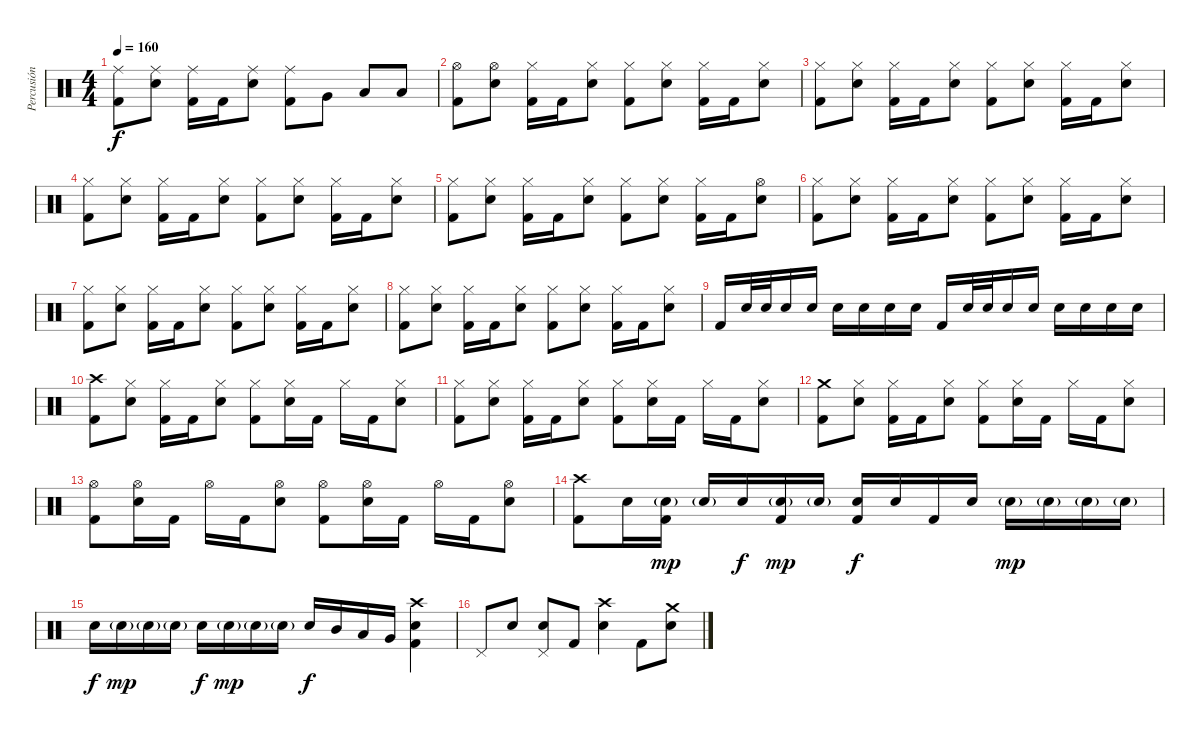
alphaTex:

\track ("Percusión" "Percusión") {instrument percussion}
\staff {score}
\articulation defaults
\ts (4 4)
\tempo 160
\clef neutral
\ks c
("Ride (middle)" "Kick (hit) 2").8{dy f} ("Ride (middle)" "Electric Snare (hit)").8 ("Ride (middle)" "Kick (hit) 2").16 "Kick (hit) 2".16 ("Ride (middle)" "Electric Snare (hit)").8 ("Ride (middle)" "Kick (hit) 2").8 "Very Low Tom (hit)".8 "Low Tom (hit)".8 "Low Tom (hit)".8 |
("Hi-Hat (open)" "Kick (hit) 2").8 ("Hi-Hat (open)" "Electric Snare (hit)").8 ("Hi-Hat (closed)" "Kick (hit) 2").16 "Kick (hit) 2".16 ("Hi-Hat (closed)" "Electric Snare (hit)").8 ("Hi-Hat (closed)" "Kick (hit) 2").8 ("Hi-Hat (closed)" "Electric Snare (hit)").8 ("Hi-Hat (closed)" "Kick (hit) 2").16 "Kick (hit) 2".16 ("Hi-Hat (closed)" "Electric Snare (hit)").8 |
("Hi-Hat (closed)" "Kick (hit) 2").8 ("Hi-Hat (closed)" "Electric Snare (hit)").8 ("Hi-Hat (closed)" "Kick (hit) 2").16 "Kick (hit) 2".16 ("Hi-Hat (closed)" "Electric Snare (hit)").8 ("Hi-Hat (closed)" "Kick (hit) 2").8 ("Hi-Hat (closed)" "Electric Snare (hit)").8 ("Hi-Hat (closed)" "Kick (hit) 2").16 "Kick (hit) 2".16 ("Hi-Hat (closed)" "Electric Snare (hit)").8 |
("Hi-Hat (closed)" "Kick (hit) 2").8 ("Hi-Hat (closed)" "Electric Snare (hit)").8 ("Hi-Hat (closed)" "Kick (hit) 2").16 "Kick (hit) 2".16 ("Hi-Hat (closed)" "Electric Snare (hit)").8 ("Hi-Hat (closed)" "Kick (hit) 2").8 ("Hi-Hat (closed)" "Electric Snare (hit)").8 ("Hi-Hat (closed)" "Kick (hit) 2").16 "Kick (hit) 2".16 ("Hi-Hat (closed)" "Electric Snare (hit)").8 |
("Hi-Hat (closed)" "Kick (hit) 2").8 ("Hi-Hat (closed)" "Electric Snare (hit)").8 ("Hi-Hat (closed)" "Kick (hit) 2").16 "Kick (hit) 2".16 ("Hi-Hat (closed)" "Electric Snare (hit)").8 ("Hi-Hat (closed)" "Kick (hit) 2").8 ("Hi-Hat (closed)" "Electric Snare (hit)").8 ("Hi-Hat (closed)" "Kick (hit) 2").16 "Kick (hit) 2".16 ("Hi-Hat (open)" "Electric Snare (hit)").8 |
("Hi-Hat (closed)" "Kick (hit) 2").8 ("Hi-Hat (closed)" "Electric Snare (hit)").8 ("Hi-Hat (closed)" "Kick (hit) 2").16 "Kick (hit) 2".16 ("Hi-Hat (closed)" "Electric Snare (hit)").8 ("Hi-Hat (closed)" "Kick (hit) 2").8 ("Hi-Hat (closed)" "Electric Snare (hit)").8 ("Hi-Hat (closed)" "Kick (hit) 2").16 "Kick (hit) 2".16 ("Hi-Hat (closed)" "Electric Snare (hit)").8 |
("Hi-Hat (closed)" "Kick (hit) 2").8 ("Hi-Hat (closed)" "Electric Snare (hit)").8 ("Hi-Hat (closed)" "Kick (hit) 2").16 "Kick (hit) 2".16 ("Hi-Hat (closed)" "Electric Snare (hit)").8 ("Hi-Hat (closed)" "Kick (hit) 2").8 ("Hi-Hat (closed)" "Electric Snare (hit)").8 ("Hi-Hat (closed)" "Kick (hit) 2").16 "Kick (hit) 2".16 ("Hi-Hat (closed)" "Electric Snare (hit)").8 |
("Hi-Hat (closed)" "Kick (hit) 2").8 ("Hi-Hat (closed)" "Electric Snare (hit)").8 ("Hi-Hat (closed)" "Kick (hit) 2").16 "Kick (hit) 2".16 ("Hi-Hat (closed)" "Electric Snare (hit)").8 ("Hi-Hat (closed)" "Kick (hit) 2").8 ("Hi-Hat (closed)" "Electric Snare (hit)").8 ("Hi-Hat (closed)" "Kick (hit) 2").16 "Kick (hit) 2".16 ("Hi-Hat (closed)" "Electric Snare (hit)").8 |
"Kick (hit) 2".16 "Electric Snare (hit)".32 "Electric Snare (hit)".32 "Electric Snare (hit)".16 "Electric Snare (hit)".16 "Electric Snare (hit)".16 "Electric Snare (hit)".16 "Electric Snare (hit)".16 "Electric Snare (hit)".16 "Kick (hit) 2".16 "Electric Snare (hit)".32 "Electric Snare (hit)".32 "Electric Snare (hit)".16 "Electric Snare (hit)".16 "Electric Snare (hit)".16 "Electric Snare (hit)".16 "Electric Snare (hit)".16 "Electric Snare (hit)".16 |
("Crash high (hit)" "Kick (hit) 2").8 ("Hi-Hat (closed)" "Electric Snare (hit)").8 ("Hi-Hat (closed)" "Kick (hit) 2").16 "Kick (hit) 2".16 ("Hi-Hat (closed)" "Electric Snare (hit)").8 ("Hi-Hat (closed)" "Kick (hit) 2").8 ("Hi-Hat (closed)" "Electric Snare (hit)").16 "Kick (hit) 2".16 "Hi-Hat (closed)".16 "Kick (hit) 2".16 ("Hi-Hat (closed)" "Electric Snare (hit)").8 |
("Hi-Hat (closed)" "Kick (hit) 2").8 ("Hi-Hat (closed)" "Electric Snare (hit)").8 ("Hi-Hat (closed)" "Kick (hit) 2").16 "Kick (hit) 2".16 ("Hi-Hat (closed)" "Electric Snare (hit)").8 ("Hi-Hat (closed)" "Kick (hit) 2").8 ("Hi-Hat (closed)" "Electric Snare (hit)").16 "Kick (hit) 2".16 "Hi-Hat (closed)".16 "Kick (hit) 2".16 ("Hi-Hat (closed)" "Electric Snare (hit)").8 |
("Crash medium (hit)" "Kick (hit) 2").8 ("Hi-Hat (closed)" "Electric Snare (hit)").8 ("Hi-Hat (closed)" "Kick (hit) 2").16 "Kick (hit) 2".16 ("Hi-Hat (closed)" "Electric Snare (hit)").8 ("Hi-Hat (closed)" "Kick (hit) 2").8 ("Hi-Hat (closed)" "Electric Snare (hit)").16 "Kick (hit) 2".16 "Hi-Hat (closed)".16 "Kick (hit) 2".16 ("Hi-Hat (closed)" "Electric Snare (hit)").8 |
("Hi-Hat (open)" "Kick (hit) 2").8 ("Hi-Hat (open)" "Electric Snare (hit)").16 "Kick (hit) 2".16 "Hi-Hat (open)".16 "Kick (hit) 2".16 ("Hi-Hat (open)" "Electric Snare (hit)").8 ("Hi-Hat (open)" "Kick (hit) 2").8 ("Hi-Hat (open)" "Electric Snare (hit)").16 "Kick (hit) 2".16 "Hi-Hat (open)".16 "Kick (hit) 2".16 ("Hi-Hat (open)" "Electric Snare (hit)").8 |
("Crash high (hit)" "Kick (hit) 2").8 "Electric Snare (hit)".16 ("Electric Snare (hit)"{g} "Kick (hit) 2").16{dy mp} "Electric Snare (hit)"{g}.16 "Electric Snare (hit)".16{dy f} ("Electric Snare (hit)"{g} "Kick (hit) 2").16{dy mp} "Electric Snare (hit)"{g}.16 ("Electric Snare (hit)" "Kick (hit) 2").16{dy f} "Electric Snare (hit)".16 "Kick (hit) 2".16 "Electric Snare (hit)".16 "Electric Snare (hit)"{g}.16{dy mp} "Electric Snare (hit)"{g}.16 "Electric Snare (hit)"{g}.16 "Electric Snare (hit)"{g}.16 |
"Electric Snare (hit)".16{dy f} "Electric Snare (hit)"{g}.16{dy mp} "Electric Snare (hit)"{g}.16 "Electric Snare (hit)"{g}.16 "Electric Snare (hit)".16{dy f} "Electric Snare (hit)"{g}.16{dy mp} "Electric Snare (hit)"{g}.16 "Electric Snare (hit)"{g}.16 "Electric Snare (hit)".16{dy f} "Mid Tom (hit)".16 "Low Tom (hit)".16 "Very Low Tom (hit)".16 ("Crash high (hit)" "Electric Snare (hit)" "Kick (hit) 2").4 |
"Pedal Hi-Hat (hit)".8 "Electric Snare (hit)".8 ("Pedal Hi-Hat (hit)" "Electric Snare (hit)").8 "Kick (hit) 2".8 ("Crash high (hit)" "Electric Snare (hit)").4 "Kick (hit) 2".8 ("Crash medium (hit)" "Electric Snare (hit)").8
